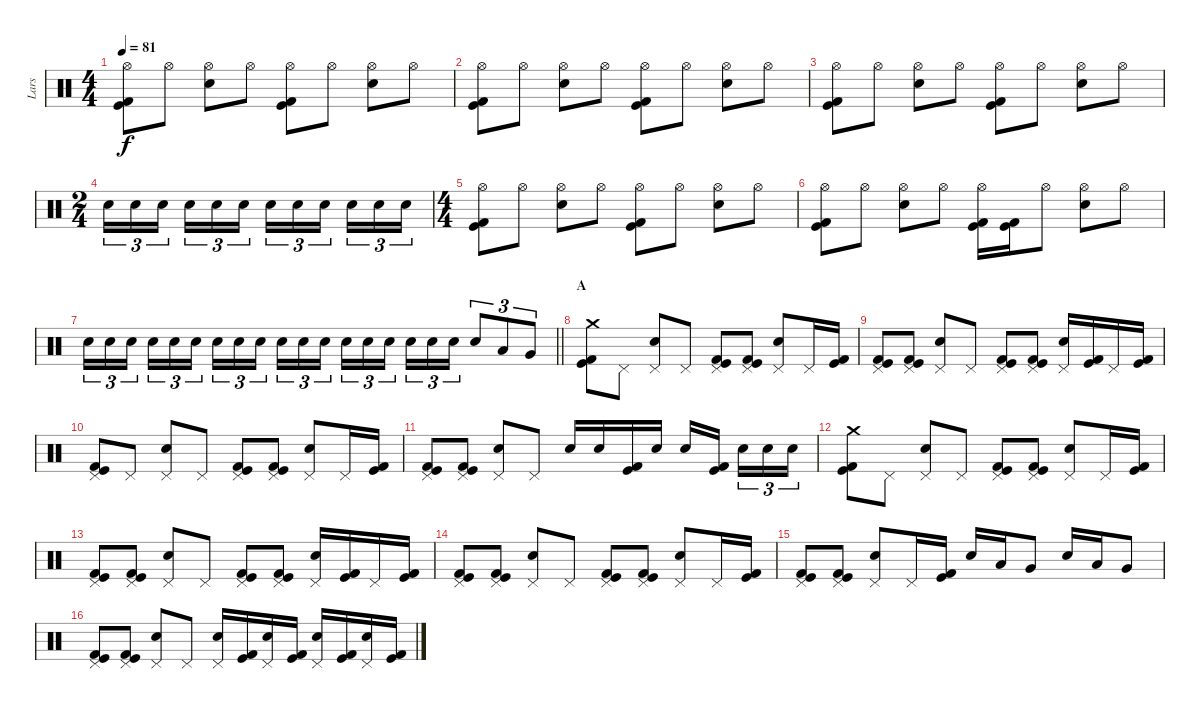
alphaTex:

\track ("Lars" "Lars") {instrument percussion}
\staff {score}
\articulation defaults
\ts (4 4)
\tempo 81
\clef neutral
\ks c
("Hi-Hat (open)" "Kick (hit)" "Kick (hit) 2").8{dy f} "Hi-Hat (open)".8 ("Hi-Hat (open)" "Electric Snare (hit)").8 "Hi-Hat (open)".8 ("Hi-Hat (open)" "Kick (hit)" "Kick (hit) 2").8 "Hi-Hat (open)".8 ("Hi-Hat (open)" "Electric Snare (hit)").8 "Hi-Hat (open)".8 |
("Hi-Hat (open)" "Kick (hit)" "Kick (hit) 2").8 "Hi-Hat (open)".8 ("Hi-Hat (open)" "Electric Snare (hit)").8 "Hi-Hat (open)".8 ("Hi-Hat (open)" "Kick (hit)" "Kick (hit) 2").8 "Hi-Hat (open)".8 ("Hi-Hat (open)" "Electric Snare (hit)").8 "Hi-Hat (open)".8 |
("Hi-Hat (open)" "Kick (hit)" "Kick (hit) 2").8 "Hi-Hat (open)".8 ("Hi-Hat (open)" "Electric Snare (hit)").8 "Hi-Hat (open)".8 ("Hi-Hat (open)" "Kick (hit)" "Kick (hit) 2").8 "Hi-Hat (open)".8 ("Hi-Hat (open)" "Electric Snare (hit)").8 "Hi-Hat (open)".8 |
\ts (2 4)
"Electric Snare (hit)".16{tu (3 2)} "Electric Snare (hit)".16{tu (3 2)} "Electric Snare (hit)".16{tu (3 2) beam splitsecondary} "Electric Snare (hit)".16{tu (3 2)} "Electric Snare (hit)".16{tu (3 2)} "Electric Snare (hit)".16{tu (3 2)} "Electric Snare (hit)".16{tu (3 2)} "Electric Snare (hit)".16{tu (3 2)} "Electric Snare (hit)".16{tu (3 2) beam splitsecondary} "Electric Snare (hit)".16{tu (3 2)} "Electric Snare (hit)".16{tu (3 2)} "Electric Snare (hit)".16{tu (3 2)} |
\ts (4 4)
("Hi-Hat (open)" "Kick (hit)" "Kick (hit) 2").8 "Hi-Hat (open)".8 ("Hi-Hat (open)" "Electric Snare (hit)").8 "Hi-Hat (open)".8 ("Hi-Hat (open)" "Kick (hit)" "Kick (hit) 2").8 "Hi-Hat (open)".8 ("Hi-Hat (open)" "Electric Snare (hit)").8 "Hi-Hat (open)".8 |
("Hi-Hat (open)" "Kick (hit)" "Kick (hit) 2").8 "Hi-Hat (open)".8 ("Hi-Hat (open)" "Electric Snare (hit)").8 "Hi-Hat (open)".8 ("Hi-Hat (open)" "Kick (hit)" "Kick (hit) 2").16 ("Kick (hit)" "Kick (hit) 2").16 "Hi-Hat (open)".8 ("Hi-Hat (open)" "Electric Snare (hit)").8 "Hi-Hat (open)".8 |
\barLineRight lightlight "Electric Snare (hit)".16{tu (3 2)} "Electric Snare (hit)".16{tu (3 2)} "Electric Snare (hit)".16{tu (3 2) beam splitsecondary} "Electric Snare (hit)".16{tu (3 2)} "Electric Snare (hit)".16{tu (3 2)} "Electric Snare (hit)".16{tu (3 2)} "Electric Snare (hit)".16{tu (3 2)} "Electric Snare (hit)".16{tu (3 2)} "Electric Snare (hit)".16{tu (3 2) beam splitsecondary} "Electric Snare (hit)".16{tu (3 2)} "Electric Snare (hit)".16{tu (3 2)} "Electric Snare (hit)".16{tu (3 2)} "Electric Snare (hit)".16{tu (3 2)} "Electric Snare (hit)".16{tu (3 2)} "Electric Snare (hit)".16{tu (3 2) beam splitsecondary} "Electric Snare (hit)".16{tu (3 2)} "Electric Snare (hit)".16{tu (3 2)} "Electric Snare (hit)".16{tu (3 2)} "Electric Snare (hit)".8{tu (3 2)} "Low Tom (hit)".8{tu (3 2)} "Very Low Tom (hit)".8{tu (3 2)}
|
\section ("" "A")
("Crash medium (hit)" "Kick (hit)" "Kick (hit) 2").8 "Pedal Hi-Hat (hit)".8 ("Pedal Hi-Hat (hit)" "Electric Snare (hit)").8 "Pedal Hi-Hat (hit)".8 ("Pedal Hi-Hat (hit)" "Kick (hit)" "Kick (hit) 2").8 ("Pedal Hi-Hat (hit)" "Kick (hit)" "Kick (hit) 2").8 ("Pedal Hi-Hat (hit)" "Electric Snare (hit)").8 "Pedal Hi-Hat (hit)".16 ("Kick (hit)" "Kick (hit) 2").16 |
("Pedal Hi-Hat (hit)" "Kick (hit)" "Kick (hit) 2").8 ("Pedal Hi-Hat (hit)" "Kick (hit)" "Kick (hit) 2").8 ("Pedal Hi-Hat (hit)" "Electric Snare (hit)").8 "Pedal Hi-Hat (hit)".8 ("Pedal Hi-Hat (hit)" "Kick (hit)" "Kick (hit) 2").8 ("Pedal Hi-Hat (hit)" "Kick (hit)" "Kick (hit) 2").8 ("Pedal Hi-Hat (hit)" "Electric Snare (hit)").16 ("Kick (hit)" "Kick (hit) 2").16 "Pedal Hi-Hat (hit)".16 ("Kick (hit)" "Kick (hit) 2").16 |
("Pedal Hi-Hat (hit)" "Kick (hit)" "Kick (hit) 2").8 "Pedal Hi-Hat (hit)".8 ("Pedal Hi-Hat (hit)" "Electric Snare (hit)").8 "Pedal Hi-Hat (hit)".8 ("Pedal Hi-Hat (hit)" "Kick (hit)" "Kick (hit) 2").8 ("Pedal Hi-Hat (hit)" "Kick (hit)" "Kick (hit) 2").8 ("Pedal Hi-Hat (hit)" "Electric Snare (hit)").8 "Pedal Hi-Hat (hit)".16 ("Kick (hit)" "Kick (hit) 2").16 |
("Pedal Hi-Hat (hit)" "Kick (hit)" "Kick (hit) 2").8 ("Pedal Hi-Hat (hit)" "Kick (hit)" "Kick (hit) 2").8 ("Pedal Hi-Hat (hit)" "Electric Snare (hit)").8 "Pedal Hi-Hat (hit)".8 "Electric Snare (hit)".16 "Electric Snare (hit)".16 ("Kick (hit)" "Kick (hit) 2").16 "Electric Snare (hit)".16 "Electric Snare (hit)".16 ("Kick (hit)" "Kick (hit) 2").16{beam splitsecondary} "Electric Snare (hit)".16{tu (3 2)} "Electric Snare (hit)".16{tu (3 2)} "Electric Snare (hit)".16{tu (3 2)} |
("Crash medium (hit)" "Kick (hit)" "Kick (hit) 2").8 "Pedal Hi-Hat (hit)".8 ("Pedal Hi-Hat (hit)" "Electric Snare (hit)").8 "Pedal Hi-Hat (hit)".8 ("Pedal Hi-Hat (hit)" "Kick (hit)" "Kick (hit) 2").8 ("Pedal Hi-Hat (hit)" "Kick (hit)" "Kick (hit) 2").8 ("Pedal Hi-Hat (hit)" "Electric Snare (hit)").8 "Pedal Hi-Hat (hit)".16 ("Kick (hit)" "Kick (hit) 2").16 |
("Pedal Hi-Hat (hit)" "Kick (hit)" "Kick (hit) 2").8 ("Pedal Hi-Hat (hit)" "Kick (hit)" "Kick (hit) 2").8 ("Pedal Hi-Hat (hit)" "Electric Snare (hit)").8 "Pedal Hi-Hat (hit)".8 ("Pedal Hi-Hat (hit)" "Kick (hit)" "Kick (hit) 2").8 ("Pedal Hi-Hat (hit)" "Kick (hit)" "Kick (hit) 2").8 ("Pedal Hi-Hat (hit)" "Electric Snare (hit)").16 ("Kick (hit)" "Kick (hit) 2").16 "Pedal Hi-Hat (hit)".16 ("Kick (hit)" "Kick (hit) 2").16 |
("Pedal Hi-Hat (hit)" "Kick (hit)" "Kick (hit) 2").8 ("Pedal Hi-Hat (hit)" "Kick (hit)" "Kick (hit) 2").8 ("Pedal Hi-Hat (hit)" "Electric Snare (hit)").8 "Pedal Hi-Hat (hit)".8 ("Pedal Hi-Hat (hit)" "Kick (hit)" "Kick (hit) 2").8 ("Pedal Hi-Hat (hit)" "Kick (hit)" "Kick (hit) 2").8 ("Pedal Hi-Hat (hit)" "Electric Snare (hit)").8 "Pedal Hi-Hat (hit)".16 ("Kick (hit)" "Kick (hit) 2").16 |
("Pedal Hi-Hat (hit)" "Kick (hit)" "Kick (hit) 2").8 ("Pedal Hi-Hat (hit)" "Kick (hit)" "Kick (hit) 2").8 ("Pedal Hi-Hat (hit)" "Electric Snare (hit)").8 "Pedal Hi-Hat (hit)".16 ("Kick (hit)" "Kick (hit) 2").16 "Electric Snare (hit)".16 "Low Tom (hit)".16 "Very Low Tom (hit)".8 "Electric Snare (hit)".16 "Low Tom (hit)".16 "Very Low Tom (hit)".8 |
("Pedal Hi-Hat (hit)" "Kick (hit)" "Kick (hit) 2").8 ("Pedal Hi-Hat (hit)" "Kick (hit)" "Kick (hit) 2").8 ("Pedal Hi-Hat (hit)" "Electric Snare (hit)").8 "Pedal Hi-Hat (hit)".8 ("Pedal Hi-Hat (hit)" "Electric Snare (hit)").16 ("Kick (hit)" "Kick (hit) 2").16 ("Pedal Hi-Hat (hit)" "Electric Snare (hit)").16 ("Kick (hit)" "Kick (hit) 2").16 ("Pedal Hi-Hat (hit)" "Electric Snare (hit)").16 ("Kick (hit)" "Kick (hit) 2").16 ("Pedal Hi-Hat (hit)" "Electric Snare (hit)").16 ("Kick (hit)" "Kick (hit) 2").16
